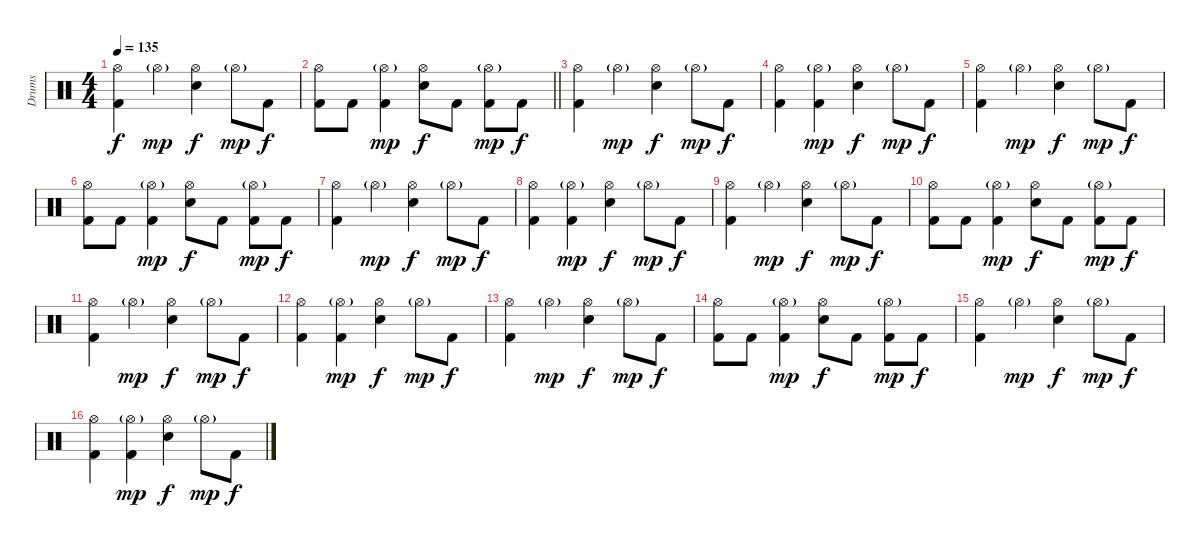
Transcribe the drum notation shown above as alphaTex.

\track ("Drums" "Drums") {instrument percussion}
\staff {score}
\articulation defaults
\ts (4 4)
\tempo 135
\clef neutral
\ks c
("Hi-Hat (open)" "Kick (hit) 2").4{dy f} "Hi-Hat (open)"{g}.4{dy mp} ("Hi-Hat (open)" "Electric Snare (hit)").4{dy f} "Hi-Hat (open)"{g}.8{dy mp} "Kick (hit) 2".8{dy f} |
\barLineRight lightlight
("Hi-Hat (open)" "Kick (hit) 2").8 "Kick (hit) 2".8 ("Hi-Hat (open)"{g} "Kick (hit) 2").4{dy mp} ("Hi-Hat (open)" "Electric Snare (hit)").8{dy f} "Kick (hit) 2".8 ("Hi-Hat (open)"{g} "Kick (hit) 2").8{dy mp} "Kick (hit) 2".8{dy f} |
\section ("" "")
("Hi-Hat (open)" "Kick (hit) 2").4 "Hi-Hat (open)"{g}.4{dy mp} ("Hi-Hat (open)" "Electric Snare (hit)").4{dy f} "Hi-Hat (open)"{g}.8{dy mp} "Kick (hit) 2".8{dy f} |
("Hi-Hat (open)" "Kick (hit) 2").4 ("Hi-Hat (open)"{g} "Kick (hit) 2").4{dy mp} ("Hi-Hat (open)" "Electric Snare (hit)").4{dy f} "Hi-Hat (open)"{g}.8{dy mp} "Kick (hit) 2".8{dy f} |
("Hi-Hat (open)" "Kick (hit) 2").4 "Hi-Hat (open)"{g}.4{dy mp} ("Hi-Hat (open)" "Electric Snare (hit)").4{dy f} "Hi-Hat (open)"{g}.8{dy mp} "Kick (hit) 2".8{dy f} |
("Hi-Hat (open)" "Kick (hit) 2").8 "Kick (hit) 2".8 ("Hi-Hat (open)"{g} "Kick (hit) 2").4{dy mp} ("Hi-Hat (open)" "Electric Snare (hit)").8{dy f} "Kick (hit) 2".8 ("Hi-Hat (open)"{g} "Kick (hit) 2").8{dy mp} "Kick (hit) 2".8{dy f} |
("Hi-Hat (open)" "Kick (hit) 2").4 "Hi-Hat (open)"{g}.4{dy mp} ("Hi-Hat (open)" "Electric Snare (hit)").4{dy f} "Hi-Hat (open)"{g}.8{dy mp} "Kick (hit) 2".8{dy f} |
("Hi-Hat (open)" "Kick (hit) 2").4 ("Hi-Hat (open)"{g} "Kick (hit) 2").4{dy mp} ("Hi-Hat (open)" "Electric Snare (hit)").4{dy f} "Hi-Hat (open)"{g}.8{dy mp} "Kick (hit) 2".8{dy f} |
("Hi-Hat (open)" "Kick (hit) 2").4 "Hi-Hat (open)"{g}.4{dy mp} ("Hi-Hat (open)" "Electric Snare (hit)").4{dy f} "Hi-Hat (open)"{g}.8{dy mp} "Kick (hit) 2".8{dy f} |
("Hi-Hat (open)" "Kick (hit) 2").8 "Kick (hit) 2".8 ("Hi-Hat (open)"{g} "Kick (hit) 2").4{dy mp} ("Hi-Hat (open)" "Electric Snare (hit)").8{dy f} "Kick (hit) 2".8 ("Hi-Hat (open)"{g} "Kick (hit) 2").8{dy mp} "Kick (hit) 2".8{dy f} |
("Hi-Hat (open)" "Kick (hit) 2").4 "Hi-Hat (open)"{g}.4{dy mp} ("Hi-Hat (open)" "Electric Snare (hit)").4{dy f} "Hi-Hat (open)"{g}.8{dy mp} "Kick (hit) 2".8{dy f} |
("Hi-Hat (open)" "Kick (hit) 2").4 ("Hi-Hat (open)"{g} "Kick (hit) 2").4{dy mp} ("Hi-Hat (open)" "Electric Snare (hit)").4{dy f} "Hi-Hat (open)"{g}.8{dy mp} "Kick (hit) 2".8{dy f} |
("Hi-Hat (open)" "Kick (hit) 2").4 "Hi-Hat (open)"{g}.4{dy mp} ("Hi-Hat (open)" "Electric Snare (hit)").4{dy f} "Hi-Hat (open)"{g}.8{dy mp} "Kick (hit) 2".8{dy f} |
("Hi-Hat (open)" "Kick (hit) 2").8 "Kick (hit) 2".8 ("Hi-Hat (open)"{g} "Kick (hit) 2").4{dy mp} ("Hi-Hat (open)" "Electric Snare (hit)").8{dy f} "Kick (hit) 2".8 ("Hi-Hat (open)"{g} "Kick (hit) 2").8{dy mp} "Kick (hit) 2".8{dy f} |
("Hi-Hat (open)" "Kick (hit) 2").4 "Hi-Hat (open)"{g}.4{dy mp} ("Hi-Hat (open)" "Electric Snare (hit)").4{dy f} "Hi-Hat (open)"{g}.8{dy mp} "Kick (hit) 2".8{dy f} |
("Hi-Hat (open)" "Kick (hit) 2").4 ("Hi-Hat (open)"{g} "Kick (hit) 2").4{dy mp} ("Hi-Hat (open)" "Electric Snare (hit)").4{dy f} "Hi-Hat (open)"{g}.8{dy mp} "Kick (hit) 2".8{dy f}
